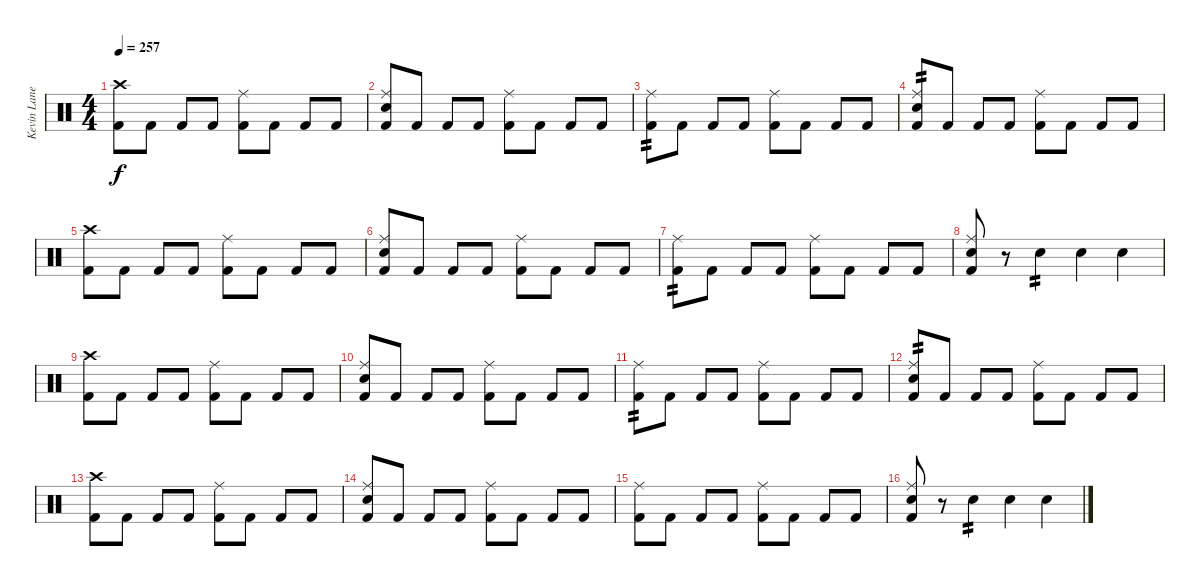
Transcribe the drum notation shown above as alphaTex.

\track ("Kevin Lane" "Kevin Lane") {instrument percussion}
\staff {score}
\articulation defaults
\ts (4 4)
\tempo 257
\clef neutral
\ks c
("Crash high (hit)" "Kick (hit) 2").8{dy f} "Kick (hit) 2".8 "Kick (hit) 2".8 "Kick (hit) 2".8 ("Ride (middle)" "Kick (hit) 2").8 "Kick (hit) 2".8 "Kick (hit) 2".8 "Kick (hit) 2".8 |
("Ride (middle)" "Electric Snare (hit)" "Kick (hit) 2").8 "Kick (hit) 2".8 "Kick (hit) 2".8 "Kick (hit) 2".8 ("Ride (middle)" "Kick (hit) 2").8 "Kick (hit) 2".8 "Kick (hit) 2".8 "Kick (hit) 2".8 |
("Ride (middle)" "Kick (hit) 2").8{tp 2} "Kick (hit) 2".8 "Kick (hit) 2".8 "Kick (hit) 2".8 ("Ride (middle)" "Kick (hit) 2").8 "Kick (hit) 2".8 "Kick (hit) 2".8 "Kick (hit) 2".8 |
("Ride (middle)" "Electric Snare (hit)" "Kick (hit) 2").8{tp 2} "Kick (hit) 2".8 "Kick (hit) 2".8 "Kick (hit) 2".8 ("Ride (middle)" "Kick (hit) 2").8 "Kick (hit) 2".8 "Kick (hit) 2".8 "Kick (hit) 2".8 |
("Crash high (hit)" "Kick (hit) 2").8 "Kick (hit) 2".8 "Kick (hit) 2".8 "Kick (hit) 2".8 ("Ride (middle)" "Kick (hit) 2").8 "Kick (hit) 2".8 "Kick (hit) 2".8 "Kick (hit) 2".8 |
("Ride (middle)" "Electric Snare (hit)" "Kick (hit) 2").8 "Kick (hit) 2".8 "Kick (hit) 2".8 "Kick (hit) 2".8 ("Ride (middle)" "Kick (hit) 2").8 "Kick (hit) 2".8 "Kick (hit) 2".8 "Kick (hit) 2".8 |
("Ride (middle)" "Kick (hit) 2").8{tp 2} "Kick (hit) 2".8 "Kick (hit) 2".8 "Kick (hit) 2".8 ("Ride (middle)" "Kick (hit) 2").8 "Kick (hit) 2".8 "Kick (hit) 2".8 "Kick (hit) 2".8 |
("Ride (middle)" "Electric Snare (hit)" "Kick (hit) 2").8 r.8 "Electric Snare (hit)".4{tp 2} "Electric Snare (hit)".4 "Electric Snare (hit)".4 |
("Crash high (hit)" "Kick (hit) 2").8 "Kick (hit) 2".8 "Kick (hit) 2".8 "Kick (hit) 2".8 ("Ride (middle)" "Kick (hit) 2").8 "Kick (hit) 2".8 "Kick (hit) 2".8 "Kick (hit) 2".8 |
("Ride (middle)" "Electric Snare (hit)" "Kick (hit) 2").8 "Kick (hit) 2".8 "Kick (hit) 2".8 "Kick (hit) 2".8 ("Ride (middle)" "Kick (hit) 2").8 "Kick (hit) 2".8 "Kick (hit) 2".8 "Kick (hit) 2".8 |
("Ride (middle)" "Kick (hit) 2").8{tp 2} "Kick (hit) 2".8 "Kick (hit) 2".8 "Kick (hit) 2".8 ("Ride (middle)" "Kick (hit) 2").8 "Kick (hit) 2".8 "Kick (hit) 2".8 "Kick (hit) 2".8 |
("Ride (middle)" "Electric Snare (hit)" "Kick (hit) 2").8{tp 2} "Kick (hit) 2".8 "Kick (hit) 2".8 "Kick (hit) 2".8 ("Ride (middle)" "Kick (hit) 2").8 "Kick (hit) 2".8 "Kick (hit) 2".8 "Kick (hit) 2".8 |
("Crash high (hit)" "Kick (hit) 2").8 "Kick (hit) 2".8 "Kick (hit) 2".8 "Kick (hit) 2".8 ("Ride (middle)" "Kick (hit) 2").8 "Kick (hit) 2".8 "Kick (hit) 2".8 "Kick (hit) 2".8 |
("Ride (middle)" "Electric Snare (hit)" "Kick (hit) 2").8 "Kick (hit) 2".8 "Kick (hit) 2".8 "Kick (hit) 2".8 ("Ride (middle)" "Kick (hit) 2").8 "Kick (hit) 2".8 "Kick (hit) 2".8 "Kick (hit) 2".8 |
("Ride (middle)" "Kick (hit) 2").8 "Kick (hit) 2".8 "Kick (hit) 2".8 "Kick (hit) 2".8 ("Ride (middle)" "Kick (hit) 2").8 "Kick (hit) 2".8 "Kick (hit) 2".8 "Kick (hit) 2".8 |
("Ride (middle)" "Electric Snare (hit)" "Kick (hit) 2").8 r.8 "Electric Snare (hit)".4{tp 2} "Electric Snare (hit)".4 "Electric Snare (hit)".4
